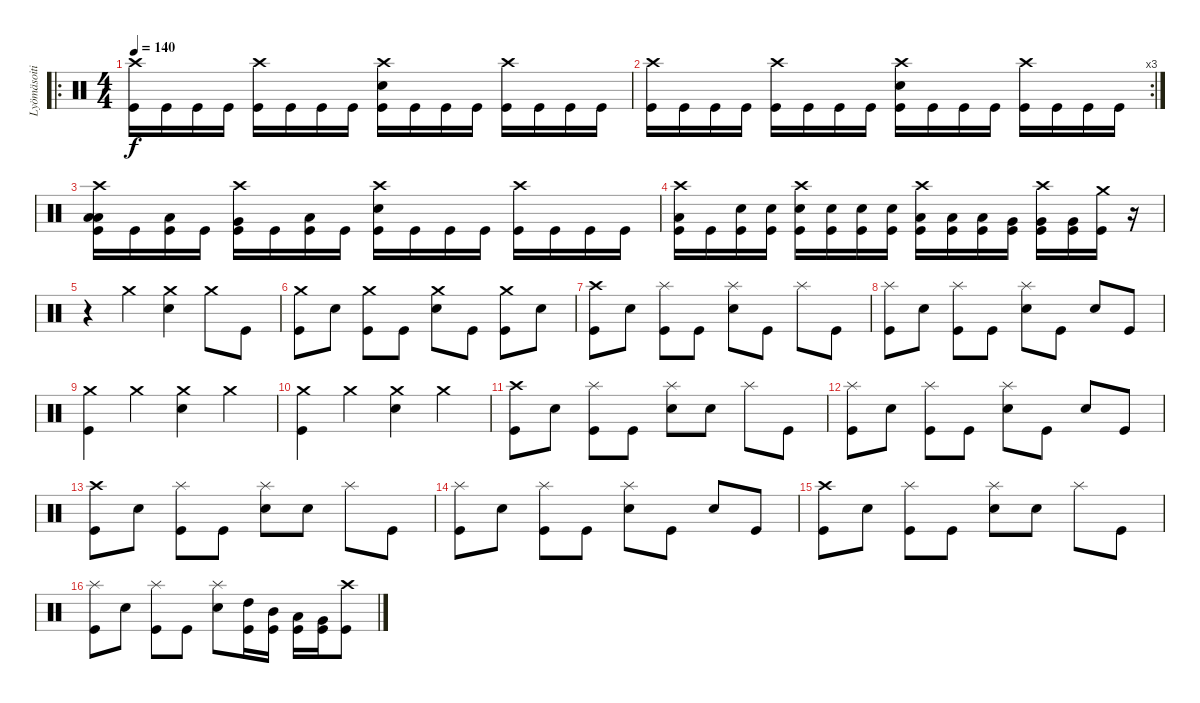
\track ("Lyömäsoitin" "Lyömäsoiti") {instrument percussion}
\staff {score}
\articulation defaults
\ro
\ts (4 4)
\tempo 140
\clef neutral
\ks c
("Crash high (hit)" "Kick (hit)").16{dy f} "Kick (hit)".16 "Kick (hit)".16 "Kick (hit)".16 ("Crash high (hit)" "Kick (hit)").16 "Kick (hit)".16 "Kick (hit)".16 "Kick (hit)".16 ("Crash high (hit)" "Electric Snare (hit)" "Kick (hit)").16 "Kick (hit)".16 "Kick (hit)".16 "Kick (hit)".16 ("Crash high (hit)" "Kick (hit)").16 "Kick (hit)".16 "Kick (hit)".16 "Kick (hit)".16 |
\rc 3
("Crash high (hit)" "Kick (hit)").16 "Kick (hit)".16 "Kick (hit)".16 "Kick (hit)".16 ("Crash high (hit)" "Kick (hit)").16 "Kick (hit)".16 "Kick (hit)".16 "Kick (hit)".16 ("Crash high (hit)" "Electric Snare (hit)" "Kick (hit)").16 "Kick (hit)".16 "Kick (hit)".16 "Kick (hit)".16 ("Crash high (hit)" "Kick (hit)").16 "Kick (hit)".16 "Kick (hit)".16 "Kick (hit)".16 |
("Crash high (hit)" "Low Tom (hit)" "Low Tom (hit)" "Kick (hit)").16 "Kick (hit)".16 ("Low Tom (hit)" "Kick (hit)").16 "Kick (hit)".16 ("Crash high (hit)" "Very Low Tom (hit)" "Kick (hit)").16 "Kick (hit)".16 ("Low Floor Tom (hit)" "Kick (hit)").16 "Kick (hit)".16 ("Crash high (hit)" "Electric Snare (hit)" "Kick (hit)").16 "Kick (hit)".16 "Kick (hit)".16 "Kick (hit)".16 ("Crash high (hit)" "Kick (hit)").16 "Kick (hit)".16 "Kick (hit)".16 "Kick (hit)".16 |
("Crash high (hit)" "Low Tom (hit)" "Kick (hit)").16 "Kick (hit)".16 ("Electric Snare (hit)" "Kick (hit)").16 ("Electric Snare (hit)" "Kick (hit)").16 ("Crash high (hit)" "Electric Snare (hit)" "Kick (hit)").16 ("Electric Snare (hit)" "Kick (hit)").16 ("Electric Snare (hit)" "Kick (hit)").16 ("Electric Snare (hit)" "Kick (hit)").16 ("Crash high (hit)" "Low Tom (hit)" "Kick (hit)").16 ("Low Tom (hit)" "Kick (hit)").16 ("Low Tom (hit)" "Kick (hit)").16 ("Very Low Tom (hit)" "Kick (hit)").16 ("Crash high (hit)" "Very Low Tom (hit)" "Kick (hit)").16 ("Very Low Tom (hit)" "Kick (hit)").16 ("Crash medium (hit)" "Kick (hit)").16 r.16 |
r.4 "Crash medium (hit)".4 ("Crash medium (hit)" "Electric Snare (hit)").4 "Crash medium (hit)".8 "Kick (hit)".8 |
("Crash medium (hit)" "Kick (hit)").8 "Electric Snare (hit)".8 ("Crash medium (hit)" "Kick (hit)").8 "Kick (hit)".8 ("Crash medium (hit)" "Electric Snare (hit)").8 "Kick (hit)".8 ("Crash medium (hit)" "Kick (hit)").8 "Electric Snare (hit)".8 |
("Crash high (hit)" "Kick (hit)").8 "Electric Snare (hit)".8 ("Splash (hit)" "Kick (hit)").8 "Kick (hit)".8 ("Splash (hit)" "Electric Snare (hit)").8 "Kick (hit)".8 "Splash (hit)".8 "Kick (hit)".8 |
("Splash (hit)" "Kick (hit)").8 "Electric Snare (hit)".8 ("Splash (hit)" "Kick (hit)").8 "Kick (hit)".8 ("Splash (hit)" "Electric Snare (hit)").8 "Kick (hit)".8 "Electric Snare (hit)".8 "Kick (hit)".8 |
("Crash medium (hit)" "Kick (hit)").4 "Crash medium (hit)".4 ("Crash medium (hit)" "Electric Snare (hit)").4 "Crash medium (hit)".4 |
("Crash medium (hit)" "Kick (hit)").4 "Crash medium (hit)".4 ("Crash medium (hit)" "Electric Snare (hit)").4 "Crash medium (hit)".4 |
("Crash high (hit)" "Kick (hit)").8 "Electric Snare (hit)".8 ("Splash (hit)" "Kick (hit)").8 "Kick (hit)".8 ("Splash (hit)" "Electric Snare (hit)").8 "Electric Snare (hit)".8 "Splash (hit)".8 "Kick (hit)".8 |
("Splash (hit)" "Kick (hit)").8 "Electric Snare (hit)".8 ("Splash (hit)" "Kick (hit)").8 "Kick (hit)".8 ("Splash (hit)" "Electric Snare (hit)").8 "Kick (hit)".8 "Electric Snare (hit)".8 "Kick (hit)".8 |
("Crash high (hit)" "Kick (hit)").8 "Electric Snare (hit)".8 ("Splash (hit)" "Kick (hit)").8 "Kick (hit)".8 ("Splash (hit)" "Electric Snare (hit)").8 "Electric Snare (hit)".8 "Splash (hit)".8 "Kick (hit)".8 |
("Splash (hit)" "Kick (hit)").8 "Electric Snare (hit)".8 ("Splash (hit)" "Kick (hit)").8 "Kick (hit)".8 ("Splash (hit)" "Electric Snare (hit)").8 "Kick (hit)".8 "Electric Snare (hit)".8 "Kick (hit)".8 |
("Crash high (hit)" "Kick (hit)").8 "Electric Snare (hit)".8 ("Splash (hit)" "Kick (hit)").8 "Kick (hit)".8 ("Splash (hit)" "Electric Snare (hit)").8 "Electric Snare (hit)".8 "Splash (hit)".8 "Kick (hit)".8 |
("Splash (hit)" "Kick (hit)").8 "Electric Snare (hit)".8 ("Splash (hit)" "Kick (hit)").8 "Kick (hit)".8 ("Splash (hit)" "Electric Snare (hit)").8 ("High Tom (hit)" "Kick (hit)").16 ("Mid Tom (hit)" "Kick (hit)").16 ("Low Tom (hit)" "Kick (hit)").16 ("Very Low Tom (hit)" "Kick (hit)").16 ("Crash high (hit)" "Kick (hit)").8
